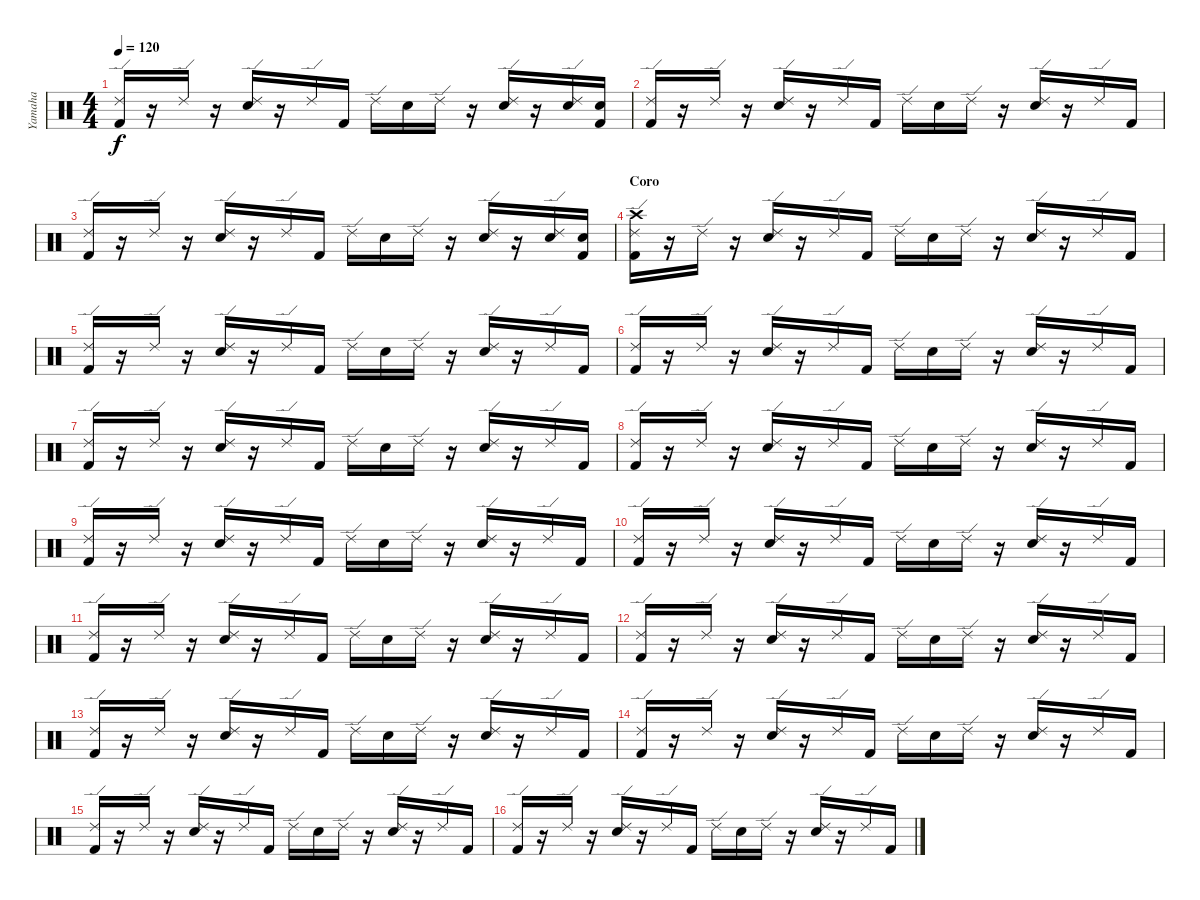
\track ("Yamaha" "Yamaha") {instrument percussion}
\staff {score}
\articulation defaults
\ts (4 4)
\tempo 120
\clef neutral
\ks c
("Ride (edge) 2" "Kick (hit) 2").16{dy f} r.16 "Ride (edge) 2".16 r.16 ("Ride (edge) 2" "Snare (hit) 2").16 r.16 "Ride (edge) 2".16 "Kick (hit) 2".16 "Ride (edge) 2".16 "Snare (hit) 2".16 "Ride (edge) 2".16 r.16 ("Ride (edge) 2" "Snare (hit) 2").16 r.16 ("Ride (edge) 2" "Snare (hit) 2").16 ("Snare (hit) 2" "Kick (hit) 2").16 |
("Ride (edge) 2" "Kick (hit) 2").16 r.16 "Ride (edge) 2".16 r.16 ("Ride (edge) 2" "Snare (hit) 2").16 r.16 "Ride (edge) 2".16 "Kick (hit) 2".16 "Ride (edge) 2".16 "Snare (hit) 2".16 "Ride (edge) 2".16 r.16 ("Ride (edge) 2" "Snare (hit) 2").16 r.16 "Ride (edge) 2".16 "Kick (hit) 2".16 |
("Ride (edge) 2" "Kick (hit) 2").16 r.16 "Ride (edge) 2".16 r.16 ("Ride (edge) 2" "Snare (hit) 2").16 r.16 "Ride (edge) 2".16 "Kick (hit) 2".16 "Ride (edge) 2".16 "Snare (hit) 2".16 "Ride (edge) 2".16 r.16 ("Ride (edge) 2" "Snare (hit) 2").16 r.16 ("Ride (edge) 2" "Snare (hit) 2").16 ("Snare (hit) 2" "Kick (hit) 2").16 |
\section ("" "Coro")
("Crash high (hit)" "Ride (edge) 2" "Kick (hit) 2").16 r.16 "Ride (edge) 2".16 r.16 ("Ride (edge) 2" "Snare (hit) 2").16 r.16 "Ride (edge) 2".16 "Kick (hit) 2".16 "Ride (edge) 2".16 "Snare (hit) 2".16 "Ride (edge) 2".16 r.16 ("Ride (edge) 2" "Snare (hit) 2").16 r.16 "Ride (edge) 2".16 "Kick (hit) 2".16 |
("Ride (edge) 2" "Kick (hit) 2").16 r.16 "Ride (edge) 2".16 r.16 ("Ride (edge) 2" "Snare (hit) 2").16 r.16 "Ride (edge) 2".16 "Kick (hit) 2".16 "Ride (edge) 2".16 "Snare (hit) 2".16 "Ride (edge) 2".16 r.16 ("Ride (edge) 2" "Snare (hit) 2").16 r.16 "Ride (edge) 2".16 "Kick (hit) 2".16 |
("Ride (edge) 2" "Kick (hit) 2").16 r.16 "Ride (edge) 2".16 r.16 ("Ride (edge) 2" "Snare (hit) 2").16 r.16 "Ride (edge) 2".16 "Kick (hit) 2".16 "Ride (edge) 2".16 "Snare (hit) 2".16 "Ride (edge) 2".16 r.16 ("Ride (edge) 2" "Snare (hit) 2").16 r.16 "Ride (edge) 2".16 "Kick (hit) 2".16 |
("Ride (edge) 2" "Kick (hit) 2").16 r.16 "Ride (edge) 2".16 r.16 ("Ride (edge) 2" "Snare (hit) 2").16 r.16 "Ride (edge) 2".16 "Kick (hit) 2".16 "Ride (edge) 2".16 "Snare (hit) 2".16 "Ride (edge) 2".16 r.16 ("Ride (edge) 2" "Snare (hit) 2").16 r.16 "Ride (edge) 2".16 "Kick (hit) 2".16 |
("Ride (edge) 2" "Kick (hit) 2").16 r.16 "Ride (edge) 2".16 r.16 ("Ride (edge) 2" "Snare (hit) 2").16 r.16 "Ride (edge) 2".16 "Kick (hit) 2".16 "Ride (edge) 2".16 "Snare (hit) 2".16 "Ride (edge) 2".16 r.16 ("Ride (edge) 2" "Snare (hit) 2").16 r.16 "Ride (edge) 2".16 "Kick (hit) 2".16 |
("Ride (edge) 2" "Kick (hit) 2").16 r.16 "Ride (edge) 2".16 r.16 ("Ride (edge) 2" "Snare (hit) 2").16 r.16 "Ride (edge) 2".16 "Kick (hit) 2".16 "Ride (edge) 2".16 "Snare (hit) 2".16 "Ride (edge) 2".16 r.16 ("Ride (edge) 2" "Snare (hit) 2").16 r.16 "Ride (edge) 2".16 "Kick (hit) 2".16 |
("Ride (edge) 2" "Kick (hit) 2").16 r.16 "Ride (edge) 2".16 r.16 ("Ride (edge) 2" "Snare (hit) 2").16 r.16 "Ride (edge) 2".16 "Kick (hit) 2".16 "Ride (edge) 2".16 "Snare (hit) 2".16 "Ride (edge) 2".16 r.16 ("Ride (edge) 2" "Snare (hit) 2").16 r.16 "Ride (edge) 2".16 "Kick (hit) 2".16 |
("Ride (edge) 2" "Kick (hit) 2").16 r.16 "Ride (edge) 2".16 r.16 ("Ride (edge) 2" "Snare (hit) 2").16 r.16 "Ride (edge) 2".16 "Kick (hit) 2".16 "Ride (edge) 2".16 "Snare (hit) 2".16 "Ride (edge) 2".16 r.16 ("Ride (edge) 2" "Snare (hit) 2").16 r.16 "Ride (edge) 2".16 "Kick (hit) 2".16 |
("Ride (edge) 2" "Kick (hit) 2").16 r.16 "Ride (edge) 2".16 r.16 ("Ride (edge) 2" "Snare (hit) 2").16 r.16 "Ride (edge) 2".16 "Kick (hit) 2".16 "Ride (edge) 2".16 "Snare (hit) 2".16 "Ride (edge) 2".16 r.16 ("Ride (edge) 2" "Snare (hit) 2").16 r.16 "Ride (edge) 2".16 "Kick (hit) 2".16 |
("Ride (edge) 2" "Kick (hit) 2").16 r.16 "Ride (edge) 2".16 r.16 ("Ride (edge) 2" "Snare (hit) 2").16 r.16 "Ride (edge) 2".16 "Kick (hit) 2".16 "Ride (edge) 2".16 "Snare (hit) 2".16 "Ride (edge) 2".16 r.16 ("Ride (edge) 2" "Snare (hit) 2").16 r.16 "Ride (edge) 2".16 "Kick (hit) 2".16 |
("Ride (edge) 2" "Kick (hit) 2").16 r.16 "Ride (edge) 2".16 r.16 ("Ride (edge) 2" "Snare (hit) 2").16 r.16 "Ride (edge) 2".16 "Kick (hit) 2".16 "Ride (edge) 2".16 "Snare (hit) 2".16 "Ride (edge) 2".16 r.16 ("Ride (edge) 2" "Snare (hit) 2").16 r.16 "Ride (edge) 2".16 "Kick (hit) 2".16 |
("Ride (edge) 2" "Kick (hit) 2").16 r.16 "Ride (edge) 2".16 r.16 ("Ride (edge) 2" "Snare (hit) 2").16 r.16 "Ride (edge) 2".16 "Kick (hit) 2".16 "Ride (edge) 2".16 "Snare (hit) 2".16 "Ride (edge) 2".16 r.16 ("Ride (edge) 2" "Snare (hit) 2").16 r.16 "Ride (edge) 2".16 "Kick (hit) 2".16 |
("Ride (edge) 2" "Kick (hit) 2").16 r.16 "Ride (edge) 2".16 r.16 ("Ride (edge) 2" "Snare (hit) 2").16 r.16 "Ride (edge) 2".16 "Kick (hit) 2".16 "Ride (edge) 2".16 "Snare (hit) 2".16 "Ride (edge) 2".16 r.16 ("Ride (edge) 2" "Snare (hit) 2").16 r.16 "Ride (edge) 2".16 "Kick (hit) 2".16
